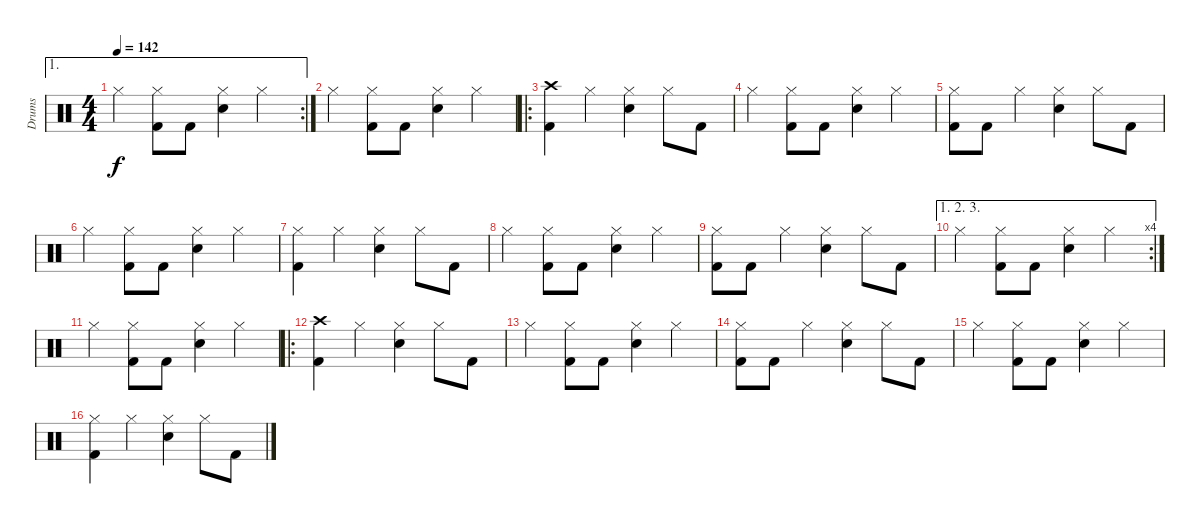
\track ("Drums" "Drums") {instrument percussion}
\staff {score}
\articulation defaults
\ae 1
\rc 2
\ts (4 4)
\tempo 142
\clef neutral
\ks c "Hi-Hat (closed)".4{dy f}
("Hi-Hat (closed)" "Kick (hit) 2").8 "Kick (hit) 2".8 ("Hi-Hat (closed)" "Electric Snare (hit)").4 "Hi-Hat (closed)".4 |
"Hi-Hat (closed)".4 ("Hi-Hat (closed)" "Kick (hit) 2").8 "Kick (hit) 2".8 ("Hi-Hat (closed)" "Electric Snare (hit)").4 "Hi-Hat (closed)".4 |
\ro
("Crash high (hit)" "Kick (hit) 2").4 "Hi-Hat (closed)".4 ("Hi-Hat (closed)" "Electric Snare (hit)").4 "Hi-Hat (closed)".8 "Kick (hit) 2".8 |
"Hi-Hat (closed)".4 ("Hi-Hat (closed)" "Kick (hit) 2").8 "Kick (hit) 2".8 ("Hi-Hat (closed)" "Electric Snare (hit)").4 "Hi-Hat (closed)".4 |
("Hi-Hat (closed)" "Kick (hit) 2").8 "Kick (hit) 2".8 "Hi-Hat (closed)".4 ("Hi-Hat (closed)" "Electric Snare (hit)").4 "Hi-Hat (closed)".8 "Kick (hit) 2".8 |
"Hi-Hat (closed)".4 ("Hi-Hat (closed)" "Kick (hit) 2").8 "Kick (hit) 2".8 ("Hi-Hat (closed)" "Electric Snare (hit)").4 "Hi-Hat (closed)".4 |
("Hi-Hat (closed)" "Kick (hit) 2").4 "Hi-Hat (closed)".4 ("Hi-Hat (closed)" "Electric Snare (hit)").4 "Hi-Hat (closed)".8 "Kick (hit) 2".8 |
"Hi-Hat (closed)".4 ("Hi-Hat (closed)" "Kick (hit) 2").8 "Kick (hit) 2".8 ("Hi-Hat (closed)" "Electric Snare (hit)").4 "Hi-Hat (closed)".4 |
("Hi-Hat (closed)" "Kick (hit) 2").8 "Kick (hit) 2".8 "Hi-Hat (closed)".4 ("Hi-Hat (closed)" "Electric Snare (hit)").4 "Hi-Hat (closed)".8 "Kick (hit) 2".8 |
\ae (1 2 3)
\rc 4 "Hi-Hat (closed)".4
("Hi-Hat (closed)" "Kick (hit) 2").8 "Kick (hit) 2".8 ("Hi-Hat (closed)" "Electric Snare (hit)").4 "Hi-Hat (closed)".4 |
"Hi-Hat (closed)".4 ("Hi-Hat (closed)" "Kick (hit) 2").8 "Kick (hit) 2".8 ("Hi-Hat (closed)" "Electric Snare (hit)").4 "Hi-Hat (closed)".4 |
\ro
("Crash high (hit)" "Kick (hit) 2").4 "Hi-Hat (closed)".4 ("Hi-Hat (closed)" "Electric Snare (hit)").4 "Hi-Hat (closed)".8 "Kick (hit) 2".8 |
"Hi-Hat (closed)".4 ("Hi-Hat (closed)" "Kick (hit) 2").8 "Kick (hit) 2".8 ("Hi-Hat (closed)" "Electric Snare (hit)").4 "Hi-Hat (closed)".4 |
("Hi-Hat (closed)" "Kick (hit) 2").8 "Kick (hit) 2".8 "Hi-Hat (closed)".4 ("Hi-Hat (closed)" "Electric Snare (hit)").4 "Hi-Hat (closed)".8 "Kick (hit) 2".8 |
"Hi-Hat (closed)".4 ("Hi-Hat (closed)" "Kick (hit) 2").8 "Kick (hit) 2".8 ("Hi-Hat (closed)" "Electric Snare (hit)").4 "Hi-Hat (closed)".4 |
("Hi-Hat (closed)" "Kick (hit) 2").4 "Hi-Hat (closed)".4 ("Hi-Hat (closed)" "Electric Snare (hit)").4 "Hi-Hat (closed)".8 "Kick (hit) 2".8
